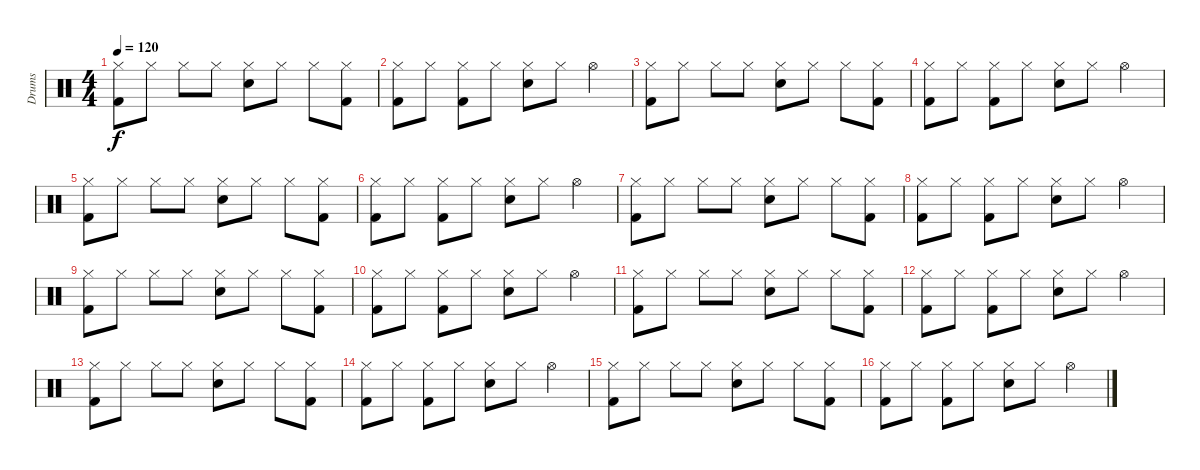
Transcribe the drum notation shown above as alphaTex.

\track ("Drums" "Drums") {instrument percussion}
\staff {score}
\articulation defaults
\ts (4 4)
\tempo 120
\clef neutral
\ks c
("Hi-Hat (closed)" "Kick (hit) 2").8{dy f} "Hi-Hat (closed)".8 "Hi-Hat (closed)".8 "Hi-Hat (closed)".8 ("Hi-Hat (closed)" "Electric Snare (hit)").8 "Hi-Hat (closed)".8 "Hi-Hat (closed)".8 ("Hi-Hat (closed)" "Kick (hit) 2").8 |
("Hi-Hat (closed)" "Kick (hit) 2").8 "Hi-Hat (closed)".8 ("Hi-Hat (closed)" "Kick (hit) 2").8 "Hi-Hat (closed)".8 ("Hi-Hat (closed)" "Electric Snare (hit)").8 "Hi-Hat (closed)".8 "Hi-Hat (open)".4 |
("Hi-Hat (closed)" "Kick (hit) 2").8 "Hi-Hat (closed)".8 "Hi-Hat (closed)".8 "Hi-Hat (closed)".8 ("Hi-Hat (closed)" "Electric Snare (hit)").8 "Hi-Hat (closed)".8 "Hi-Hat (closed)".8 ("Hi-Hat (closed)" "Kick (hit) 2").8 |
("Hi-Hat (closed)" "Kick (hit) 2").8 "Hi-Hat (closed)".8 ("Hi-Hat (closed)" "Kick (hit) 2").8 "Hi-Hat (closed)".8 ("Hi-Hat (closed)" "Electric Snare (hit)").8 "Hi-Hat (closed)".8 "Hi-Hat (open)".4 |
("Hi-Hat (closed)" "Kick (hit) 2").8 "Hi-Hat (closed)".8 "Hi-Hat (closed)".8 "Hi-Hat (closed)".8 ("Hi-Hat (closed)" "Electric Snare (hit)").8 "Hi-Hat (closed)".8 "Hi-Hat (closed)".8 ("Hi-Hat (closed)" "Kick (hit) 2").8 |
("Hi-Hat (closed)" "Kick (hit) 2").8 "Hi-Hat (closed)".8 ("Hi-Hat (closed)" "Kick (hit) 2").8 "Hi-Hat (closed)".8 ("Hi-Hat (closed)" "Electric Snare (hit)").8 "Hi-Hat (closed)".8 "Hi-Hat (open)".4 |
("Hi-Hat (closed)" "Kick (hit) 2").8 "Hi-Hat (closed)".8 "Hi-Hat (closed)".8 "Hi-Hat (closed)".8 ("Hi-Hat (closed)" "Electric Snare (hit)").8 "Hi-Hat (closed)".8 "Hi-Hat (closed)".8 ("Hi-Hat (closed)" "Kick (hit) 2").8 |
("Hi-Hat (closed)" "Kick (hit) 2").8 "Hi-Hat (closed)".8 ("Hi-Hat (closed)" "Kick (hit) 2").8 "Hi-Hat (closed)".8 ("Hi-Hat (closed)" "Electric Snare (hit)").8 "Hi-Hat (closed)".8 "Hi-Hat (open)".4 |
("Hi-Hat (closed)" "Kick (hit) 2").8 "Hi-Hat (closed)".8 "Hi-Hat (closed)".8 "Hi-Hat (closed)".8 ("Hi-Hat (closed)" "Electric Snare (hit)").8 "Hi-Hat (closed)".8 "Hi-Hat (closed)".8 ("Hi-Hat (closed)" "Kick (hit) 2").8 |
("Hi-Hat (closed)" "Kick (hit) 2").8 "Hi-Hat (closed)".8 ("Hi-Hat (closed)" "Kick (hit) 2").8 "Hi-Hat (closed)".8 ("Hi-Hat (closed)" "Electric Snare (hit)").8 "Hi-Hat (closed)".8 "Hi-Hat (open)".4 |
("Hi-Hat (closed)" "Kick (hit) 2").8 "Hi-Hat (closed)".8 "Hi-Hat (closed)".8 "Hi-Hat (closed)".8 ("Hi-Hat (closed)" "Electric Snare (hit)").8 "Hi-Hat (closed)".8 "Hi-Hat (closed)".8 ("Hi-Hat (closed)" "Kick (hit) 2").8 |
("Hi-Hat (closed)" "Kick (hit) 2").8 "Hi-Hat (closed)".8 ("Hi-Hat (closed)" "Kick (hit) 2").8 "Hi-Hat (closed)".8 ("Hi-Hat (closed)" "Electric Snare (hit)").8 "Hi-Hat (closed)".8 "Hi-Hat (open)".4 |
("Hi-Hat (closed)" "Kick (hit) 2").8 "Hi-Hat (closed)".8 "Hi-Hat (closed)".8 "Hi-Hat (closed)".8 ("Hi-Hat (closed)" "Electric Snare (hit)").8 "Hi-Hat (closed)".8 "Hi-Hat (closed)".8 ("Hi-Hat (closed)" "Kick (hit) 2").8 |
("Hi-Hat (closed)" "Kick (hit) 2").8 "Hi-Hat (closed)".8 ("Hi-Hat (closed)" "Kick (hit) 2").8 "Hi-Hat (closed)".8 ("Hi-Hat (closed)" "Electric Snare (hit)").8 "Hi-Hat (closed)".8 "Hi-Hat (open)".4 |
("Hi-Hat (closed)" "Kick (hit) 2").8 "Hi-Hat (closed)".8 "Hi-Hat (closed)".8 "Hi-Hat (closed)".8 ("Hi-Hat (closed)" "Electric Snare (hit)").8 "Hi-Hat (closed)".8 "Hi-Hat (closed)".8 ("Hi-Hat (closed)" "Kick (hit) 2").8 |
("Hi-Hat (closed)" "Kick (hit) 2").8 "Hi-Hat (closed)".8 ("Hi-Hat (closed)" "Kick (hit) 2").8 "Hi-Hat (closed)".8 ("Hi-Hat (closed)" "Electric Snare (hit)").8 "Hi-Hat (closed)".8 "Hi-Hat (open)".4
